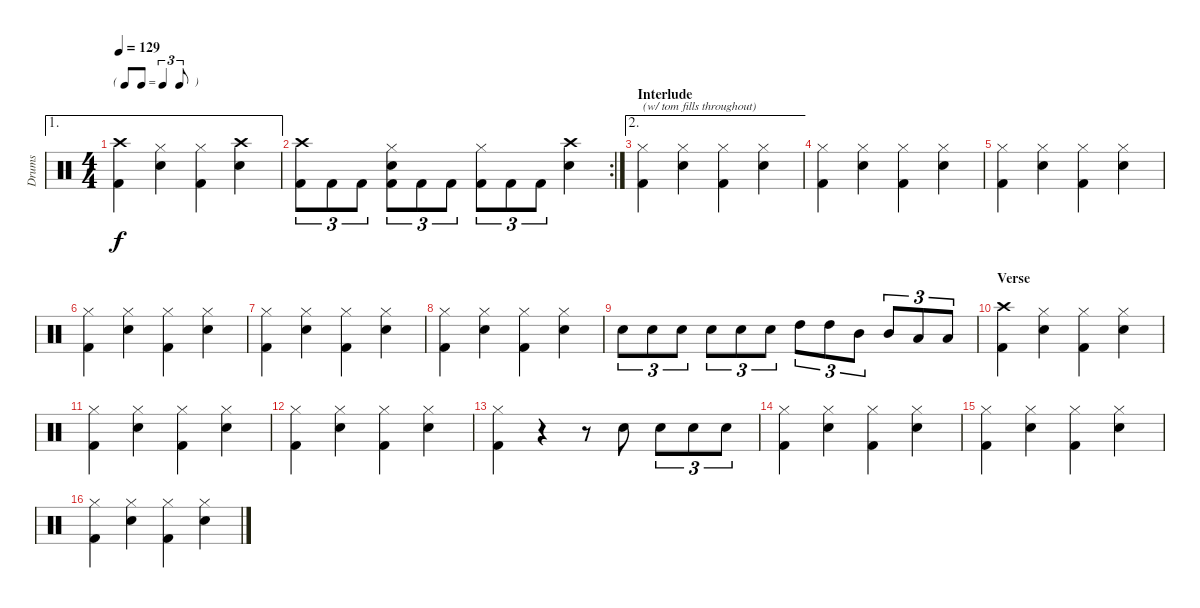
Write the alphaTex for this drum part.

\track ("Drums" "Drums") {instrument percussion}
\staff {score}
\articulation defaults
\ae 1
\ts (4 4)
\tf triplet8th
\tempo 129
\clef neutral
\ks c
("Kick (hit) 2" "Crash high (hit)").4{dy f} ("Snare (hit) 2" "Hi-Hat (closed)").4 ("Kick (hit) 2" "Hi-Hat (closed)").4 ("Crash high (hit)" "Snare (hit) 2").4 |
\rc 2
("Kick (hit) 2" "Crash high (hit)").8{tu (3 2)} "Kick (hit) 2".8{tu (3 2)} "Kick (hit) 2".8{tu (3 2)} ("Kick (hit) 2" "Snare (hit) 2" "Hi-Hat (closed)").8{tu (3 2)} "Kick (hit) 2".8{tu (3 2)} "Kick (hit) 2".8{tu (3 2)} ("Kick (hit) 2" "Hi-Hat (closed)").8{tu (3 2)} "Kick (hit) 2".8{tu (3 2)} "Kick (hit) 2".8{tu (3 2)} ("Crash high (hit)" "Snare (hit) 2").4 |
\ae 2
\section ("" "Interlude")
("Kick (hit) 2" "Hi-Hat (closed)").4{txt "(w/ tom fills throughout)"} ("Snare (hit) 2" "Hi-Hat (closed)").4 ("Kick (hit) 2" "Hi-Hat (closed)").4 ("Snare (hit) 2" "Hi-Hat (closed)").4 |
("Kick (hit) 2" "Hi-Hat (closed)").4 ("Snare (hit) 2" "Hi-Hat (closed)").4 ("Kick (hit) 2" "Hi-Hat (closed)").4 ("Snare (hit) 2" "Hi-Hat (closed)").4 |
("Kick (hit) 2" "Hi-Hat (closed)").4 ("Snare (hit) 2" "Hi-Hat (closed)").4 ("Kick (hit) 2" "Hi-Hat (closed)").4 ("Snare (hit) 2" "Hi-Hat (closed)").4 |
("Kick (hit) 2" "Hi-Hat (closed)").4 ("Snare (hit) 2" "Hi-Hat (closed)").4 ("Kick (hit) 2" "Hi-Hat (closed)").4 ("Snare (hit) 2" "Hi-Hat (closed)").4 |
("Kick (hit) 2" "Hi-Hat (closed)").4 ("Snare (hit) 2" "Hi-Hat (closed)").4 ("Kick (hit) 2" "Hi-Hat (closed)").4 ("Snare (hit) 2" "Hi-Hat (closed)").4 |
("Kick (hit) 2" "Hi-Hat (closed)").4 ("Snare (hit) 2" "Hi-Hat (closed)").4 ("Kick (hit) 2" "Hi-Hat (closed)").4 ("Snare (hit) 2" "Hi-Hat (closed)").4 |
"Snare (hit) 2".8{tu (3 2)} "Snare (hit) 2".8{tu (3 2)} "Snare (hit) 2".8{tu (3 2)} "Snare (hit) 2".8{tu (3 2)} "Snare (hit) 2".8{tu (3 2)} "Snare (hit) 2".8{tu (3 2)} "High Tom (hit)".8{tu (3 2)} "High Tom (hit)".8{tu (3 2)} "Mid Tom (hit)".8{tu (3 2)} "Mid Tom (hit)".8{tu (3 2)} "Low Tom (hit)".8{tu (3 2)} "Low Tom (hit)".8{tu (3 2)} |
\section ("" "Verse")
("Kick (hit) 2" "Crash high (hit)").4 ("Snare (hit) 2" "Hi-Hat (closed)").4 ("Kick (hit) 2" "Hi-Hat (closed)").4 ("Snare (hit) 2" "Hi-Hat (closed)").4 |
("Kick (hit) 2" "Hi-Hat (closed)").4 ("Snare (hit) 2" "Hi-Hat (closed)").4 ("Kick (hit) 2" "Hi-Hat (closed)").4 ("Snare (hit) 2" "Hi-Hat (closed)").4 |
("Kick (hit) 2" "Hi-Hat (closed)").4 ("Snare (hit) 2" "Hi-Hat (closed)").4 ("Kick (hit) 2" "Hi-Hat (closed)").4 ("Snare (hit) 2" "Hi-Hat (closed)").4 |
("Kick (hit) 2" "Hi-Hat (closed)").4 r.4 r.8 "Snare (hit) 2".8 "Snare (hit) 2".8{tu (3 2)} "Snare (hit) 2".8{tu (3 2)} "Snare (hit) 2".8{tu (3 2)} |
("Kick (hit) 2" "Hi-Hat (closed)").4 ("Snare (hit) 2" "Hi-Hat (closed)").4 ("Kick (hit) 2" "Hi-Hat (closed)").4 ("Snare (hit) 2" "Hi-Hat (closed)").4 |
("Kick (hit) 2" "Hi-Hat (closed)").4 ("Snare (hit) 2" "Hi-Hat (closed)").4 ("Kick (hit) 2" "Hi-Hat (closed)").4 ("Snare (hit) 2" "Hi-Hat (closed)").4 |
("Kick (hit) 2" "Hi-Hat (closed)").4 ("Snare (hit) 2" "Hi-Hat (closed)").4 ("Kick (hit) 2" "Hi-Hat (closed)").4 ("Snare (hit) 2" "Hi-Hat (closed)").4
